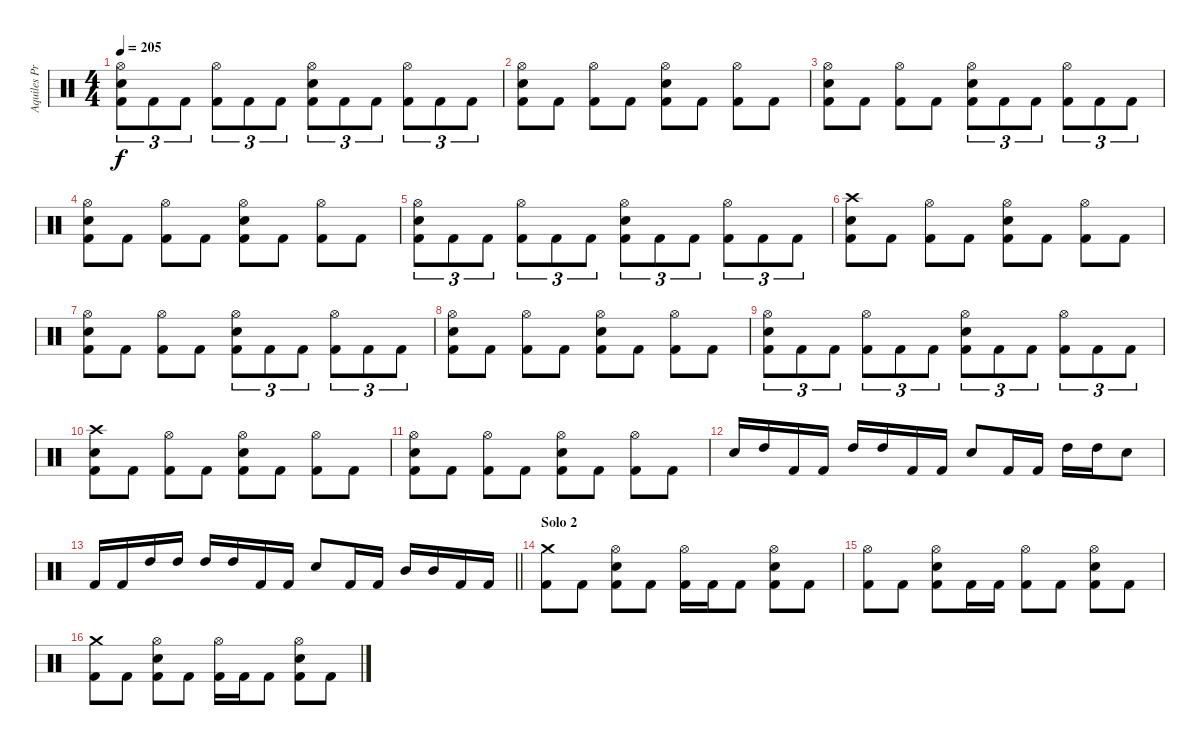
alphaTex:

\track ("Aquiles Priester" "Aquiles Pr") {instrument percussion}
\staff {score}
\articulation defaults
\ts (4 4)
\tempo 205
\clef neutral
\ks c
("Hi-Hat (open)" "Electric Snare (hit)" "Kick (hit) 2").8{tu (3 2) dy f} "Kick (hit) 2".8{tu (3 2)} "Kick (hit) 2".8{tu (3 2)} ("Hi-Hat (open)" "Kick (hit) 2").8{tu (3 2)} "Kick (hit) 2".8{tu (3 2)} "Kick (hit) 2".8{tu (3 2)} ("Hi-Hat (open)" "Electric Snare (hit)" "Kick (hit) 2").8{tu (3 2)} "Kick (hit) 2".8{tu (3 2)} "Kick (hit) 2".8{tu (3 2)} ("Hi-Hat (open)" "Kick (hit) 2").8{tu (3 2)} "Kick (hit) 2".8{tu (3 2)} "Kick (hit) 2".8{tu (3 2)} |
("Hi-Hat (open)" "Electric Snare (hit)" "Kick (hit) 2").8 "Kick (hit) 2".8 ("Hi-Hat (open)" "Kick (hit) 2").8 "Kick (hit) 2".8 ("Hi-Hat (open)" "Electric Snare (hit)" "Kick (hit) 2").8 "Kick (hit) 2".8 ("Hi-Hat (open)" "Kick (hit) 2").8 "Kick (hit) 2".8 |
("Hi-Hat (open)" "Electric Snare (hit)" "Kick (hit) 2").8 "Kick (hit) 2".8 ("Hi-Hat (open)" "Kick (hit) 2").8 "Kick (hit) 2".8 ("Hi-Hat (open)" "Electric Snare (hit)" "Kick (hit) 2").8{tu (3 2)} "Kick (hit) 2".8{tu (3 2)} "Kick (hit) 2".8{tu (3 2)} ("Hi-Hat (open)" "Kick (hit) 2").8{tu (3 2)} "Kick (hit) 2".8{tu (3 2)} "Kick (hit) 2".8{tu (3 2)} |
("Hi-Hat (open)" "Electric Snare (hit)" "Kick (hit) 2").8 "Kick (hit) 2".8 ("Hi-Hat (open)" "Kick (hit) 2").8 "Kick (hit) 2".8 ("Hi-Hat (open)" "Electric Snare (hit)" "Kick (hit) 2").8 "Kick (hit) 2".8 ("Hi-Hat (open)" "Kick (hit) 2").8 "Kick (hit) 2".8 |
("Hi-Hat (open)" "Electric Snare (hit)" "Kick (hit) 2").8{tu (3 2)} "Kick (hit) 2".8{tu (3 2)} "Kick (hit) 2".8{tu (3 2)} ("Hi-Hat (open)" "Kick (hit) 2").8{tu (3 2)} "Kick (hit) 2".8{tu (3 2)} "Kick (hit) 2".8{tu (3 2)} ("Hi-Hat (open)" "Electric Snare (hit)" "Kick (hit) 2").8{tu (3 2)} "Kick (hit) 2".8{tu (3 2)} "Kick (hit) 2".8{tu (3 2)} ("Hi-Hat (open)" "Kick (hit) 2").8{tu (3 2)} "Kick (hit) 2".8{tu (3 2)} "Kick (hit) 2".8{tu (3 2)} |
("Crash high (hit)" "Electric Snare (hit)" "Kick (hit) 2").8 "Kick (hit) 2".8 ("Hi-Hat (open)" "Kick (hit) 2").8 "Kick (hit) 2".8 ("Hi-Hat (open)" "Electric Snare (hit)" "Kick (hit) 2").8 "Kick (hit) 2".8 ("Hi-Hat (open)" "Kick (hit) 2").8 "Kick (hit) 2".8 |
("Hi-Hat (open)" "Electric Snare (hit)" "Kick (hit) 2").8 "Kick (hit) 2".8 ("Hi-Hat (open)" "Kick (hit) 2").8 "Kick (hit) 2".8 ("Hi-Hat (open)" "Electric Snare (hit)" "Kick (hit) 2").8{tu (3 2)} "Kick (hit) 2".8{tu (3 2)} "Kick (hit) 2".8{tu (3 2)} ("Hi-Hat (open)" "Kick (hit) 2").8{tu (3 2)} "Kick (hit) 2".8{tu (3 2)} "Kick (hit) 2".8{tu (3 2)} |
("Hi-Hat (open)" "Electric Snare (hit)" "Kick (hit) 2").8 "Kick (hit) 2".8 ("Hi-Hat (open)" "Kick (hit) 2").8 "Kick (hit) 2".8 ("Hi-Hat (open)" "Electric Snare (hit)" "Kick (hit) 2").8 "Kick (hit) 2".8 ("Hi-Hat (open)" "Kick (hit) 2").8 "Kick (hit) 2".8 |
("Hi-Hat (open)" "Electric Snare (hit)" "Kick (hit) 2").8{tu (3 2)} "Kick (hit) 2".8{tu (3 2)} "Kick (hit) 2".8{tu (3 2)} ("Hi-Hat (open)" "Kick (hit) 2").8{tu (3 2)} "Kick (hit) 2".8{tu (3 2)} "Kick (hit) 2".8{tu (3 2)} ("Hi-Hat (open)" "Electric Snare (hit)" "Kick (hit) 2").8{tu (3 2)} "Kick (hit) 2".8{tu (3 2)} "Kick (hit) 2".8{tu (3 2)} ("Hi-Hat (open)" "Kick (hit) 2").8{tu (3 2)} "Kick (hit) 2".8{tu (3 2)} "Kick (hit) 2".8{tu (3 2)} |
("Crash high (hit)" "Electric Snare (hit)" "Kick (hit) 2").8 "Kick (hit) 2".8 ("Hi-Hat (open)" "Kick (hit) 2").8 "Kick (hit) 2".8 ("Hi-Hat (open)" "Electric Snare (hit)" "Kick (hit) 2").8 "Kick (hit) 2".8 ("Hi-Hat (open)" "Kick (hit) 2").8 "Kick (hit) 2".8 |
("Hi-Hat (open)" "Electric Snare (hit)" "Kick (hit) 2").8 "Kick (hit) 2".8 ("Hi-Hat (open)" "Kick (hit) 2").8 "Kick (hit) 2".8 ("Hi-Hat (open)" "Electric Snare (hit)" "Kick (hit) 2").8 "Kick (hit) 2".8 ("Hi-Hat (open)" "Kick (hit) 2").8 "Kick (hit) 2".8 |
"Electric Snare (hit)".16 "High Tom (hit)".16 "Kick (hit) 2".16 "Kick (hit) 2".16 "High Tom (hit)".16 "High Tom (hit)".16 "Kick (hit) 2".16 "Kick (hit) 2".16 "Electric Snare (hit)".8 "Kick (hit) 2".16 "Kick (hit) 2".16 "High Tom (hit)".16 "High Tom (hit)".16 "Electric Snare (hit)".8 |
\barLineRight lightlight "Kick (hit) 2".16 "Kick (hit) 2".16 "High Tom (hit)".16 "High Tom (hit)".16 "High Tom (hit)".16 "High Tom (hit)".16 "Kick (hit) 2".16 "Kick (hit) 2".16 "Electric Snare (hit)".8 "Kick (hit) 2".16 "Kick (hit) 2".16 "Mid Tom (hit)".16 "Mid Tom (hit)".16 "Kick (hit) 2".16 "Kick (hit) 2".16
|
\section ("" "Solo 2")
("Crash medium (hit)" "Kick (hit) 2").8 "Kick (hit) 2".8 ("Hi-Hat (open)" "Electric Snare (hit)" "Kick (hit) 2").8 "Kick (hit) 2".8 ("Hi-Hat (open)" "Kick (hit) 2").16 "Kick (hit) 2".16 "Kick (hit) 2".8 ("Hi-Hat (open)" "Electric Snare (hit)" "Kick (hit) 2").8 "Kick (hit) 2".8 |
("Hi-Hat (open)" "Kick (hit) 2").8 "Kick (hit) 2".8 ("Hi-Hat (open)" "Electric Snare (hit)" "Kick (hit) 2").8 "Kick (hit) 2".16 "Kick (hit) 2".16 ("Hi-Hat (open)" "Kick (hit) 2").8 "Kick (hit) 2".8 ("Hi-Hat (open)" "Electric Snare (hit)" "Kick (hit) 2").8 "Kick (hit) 2".8 |
("Crash medium (hit)" "Kick (hit) 2").8 "Kick (hit) 2".8 ("Hi-Hat (open)" "Electric Snare (hit)" "Kick (hit) 2").8 "Kick (hit) 2".8 ("Hi-Hat (open)" "Kick (hit) 2").16 "Kick (hit) 2".16 "Kick (hit) 2".8 ("Hi-Hat (open)" "Electric Snare (hit)" "Kick (hit) 2").8 "Kick (hit) 2".8
